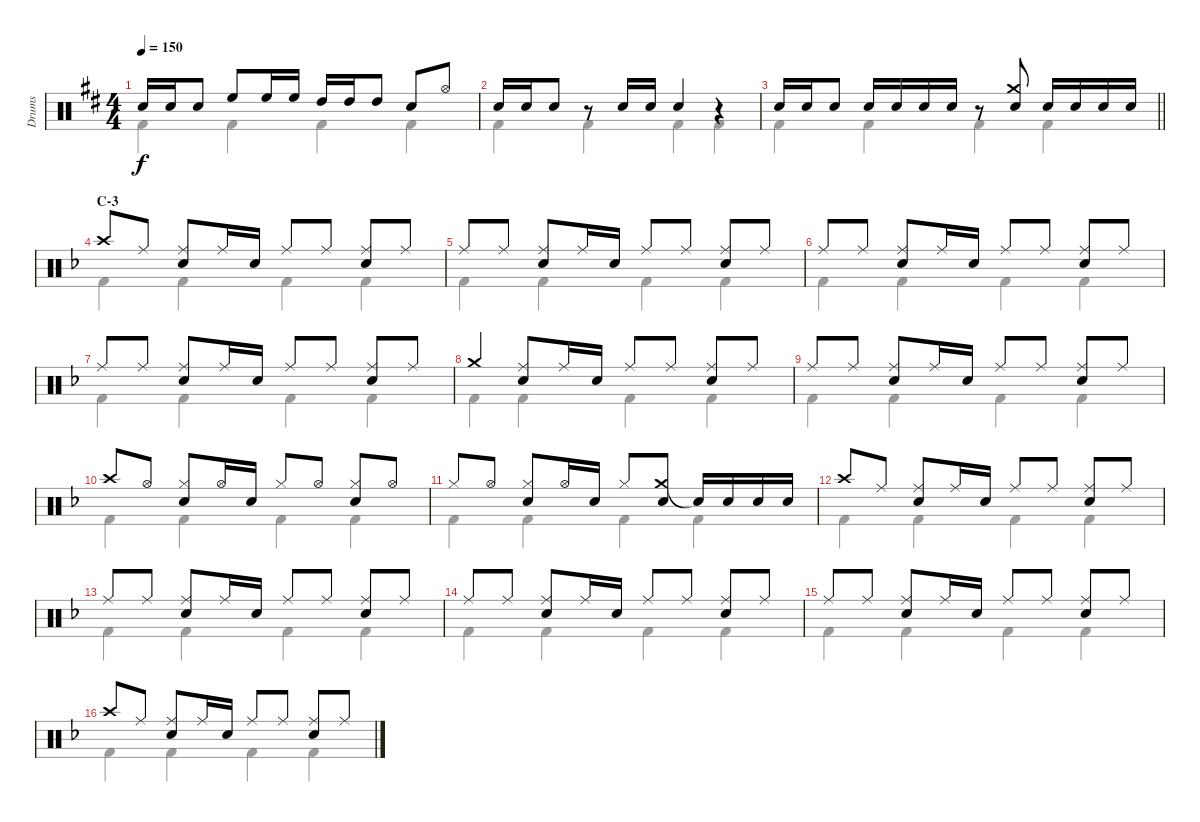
\track ("Drums" "Drums") {instrument percussion}
\staff {score}
\articulation defaults
\voice
\ts (4 4)
\tempo 150
\clef neutral
\ks d "Snare (hit) 2".16{dy f} "Snare (hit) 2".16 "Snare (hit) 2".8 "High Floor Tom (hit)".8 "High Floor Tom (hit)".16 "High Floor Tom (hit)".16 "High Tom (hit)".16 "High Tom (hit)".16 "High Tom (hit)".8 "Snare (hit) 2".8 "Hi-Hat (open)".8
|
"Snare (hit) 2".16 "Snare (hit) 2".16 "Snare (hit) 2".8 r.8 "Snare (hit) 2".16 "Snare (hit) 2".16 "Snare (hit) 2".4 r.4 |
\barLineRight lightlight "Snare (hit) 2".16 "Snare (hit) 2".16 "Snare (hit) 2".8 "Snare (hit) 2".16 "Snare (hit) 2".16 "Snare (hit) 2".16 "Snare (hit) 2".16
r.8 ("Crash medium (hit)" "Snare (hit) 2").8 "Snare (hit) 2".16 "Snare (hit) 2".16 "Snare (hit) 2".16 "Snare (hit) 2".16 |
\section ("" "C-3")
\ks f "Crash high (hit)".8 "Ride (middle)".8
("Ride (middle)" "Snare (hit) 2").8 "Ride (middle)".16 "Snare (hit) 2".16 "Ride (middle)".8 "Ride (middle)".8 ("Ride (middle)" "Snare (hit) 2").8 "Ride (middle)".8 |
"Ride (middle)".8 "Ride (middle)".8 ("Ride (middle)" "Snare (hit) 2").8 "Ride (middle)".16 "Snare (hit) 2".16 "Ride (middle)".8 "Ride (middle)".8 ("Ride (middle)" "Snare (hit) 2").8 "Ride (middle)".8 |
"Ride (middle)".8 "Ride (middle)".8 ("Ride (middle)" "Snare (hit) 2").8 "Ride (middle)".16 "Snare (hit) 2".16 "Ride (middle)".8 "Ride (middle)".8 ("Ride (middle)" "Snare (hit) 2").8 "Ride (middle)".8 |
"Ride (middle)".8 "Ride (middle)".8 ("Ride (middle)" "Snare (hit) 2").8 "Ride (middle)".16 "Snare (hit) 2".16 "Ride (middle)".8 "Ride (middle)".8 ("Ride (middle)" "Snare (hit) 2").8 "Ride (middle)".8 |
"Crash medium (hit)".4 ("Ride (middle)" "Snare (hit) 2").8 "Ride (middle)".16 "Snare (hit) 2".16 "Ride (middle)".8 "Ride (middle)".8 ("Ride (middle)" "Snare (hit) 2").8 "Ride (middle)".8 |
"Ride (middle)".8 "Ride (middle)".8 ("Ride (middle)" "Snare (hit) 2").8 "Ride (middle)".16 "Snare (hit) 2".16 "Ride (middle)".8 "Ride (middle)".8 ("Ride (middle)" "Snare (hit) 2").8 "Ride (middle)".8 |
"Crash high (hit)".8 "Hi-Hat (open)".8 ("Hi-Hat (closed)" "Snare (hit) 2").8 "Hi-Hat (open)".16 "Snare (hit) 2".16 "Hi-Hat (closed)".8 "Hi-Hat (open)".8 ("Hi-Hat (closed)" "Snare (hit) 2").8 "Hi-Hat (open)".8 |
"Hi-Hat (closed)".8 "Hi-Hat (open)".8 ("Hi-Hat (closed)" "Snare (hit) 2").8 "Hi-Hat (open)".16 "Snare (hit) 2".16 "Hi-Hat (closed)".8 ("Crash medium (hit)" "Snare (hit) 2").8 "Snare (hit)"{t}.16 "Snare (hit) 2".16 "Snare (hit) 2".16 "Snare (hit) 2".16 |
"Crash high (hit)".8 "Ride (middle)".8 ("Ride (middle)" "Snare (hit) 2").8 "Ride (middle)".16 "Snare (hit) 2".16 "Ride (middle)".8 "Ride (middle)".8 ("Ride (middle)" "Snare (hit) 2").8 "Ride (middle)".8 |
"Ride (middle)".8 "Ride (middle)".8 ("Ride (middle)" "Snare (hit) 2").8 "Ride (middle)".16 "Snare (hit) 2".16 "Ride (middle)".8 "Ride (middle)".8 ("Ride (middle)" "Snare (hit) 2").8 "Ride (middle)".8 |
"Ride (middle)".8 "Ride (middle)".8 ("Ride (middle)" "Snare (hit) 2").8 "Ride (middle)".16 "Snare (hit) 2".16 "Ride (middle)".8 "Ride (middle)".8 ("Ride (middle)" "Snare (hit) 2").8 "Ride (middle)".8 |
"Ride (middle)".8 "Ride (middle)".8 ("Ride (middle)" "Snare (hit) 2").8 "Ride (middle)".16 "Snare (hit) 2".16 "Ride (middle)".8 "Ride (middle)".8 ("Ride (middle)" "Snare (hit) 2").8 "Ride (middle)".8 |
"Crash high (hit)".8 "Ride (middle)".8 ("Ride (middle)" "Snare (hit) 2").8 "Ride (middle)".16 "Snare (hit) 2".16 "Ride (middle)".8 "Ride (middle)".8 ("Ride (middle)" "Snare (hit) 2").8 "Ride (middle)".8
\voice
\clef neutral
\ottava regular
\simile none
\ks d "Kick (hit) 2".4{dy f} "Kick (hit) 2".4 "Kick (hit) 2".4 "Kick (hit) 2".4
|
"Kick (hit) 2".4 "Kick (hit) 2".4 "Kick (hit) 2".4 "Kick (hit) 2".4 |
\barLineRight lightlight "Kick (hit) 2".4 "Kick (hit) 2".4 "Kick (hit) 2".4 "Kick (hit) 2".4
|
\ks f "Kick (hit) 2".4 "Kick (hit) 2".4 "Kick (hit) 2".4 "Kick (hit) 2".4
|
"Kick (hit) 2".4 "Kick (hit) 2".4 "Kick (hit) 2".4 "Kick (hit) 2".4 |
"Kick (hit) 2".4 "Kick (hit) 2".4 "Kick (hit) 2".4 "Kick (hit) 2".4 |
"Kick (hit) 2".4 "Kick (hit) 2".4 "Kick (hit) 2".4 "Kick (hit) 2".4 |
"Kick (hit) 2".4 "Kick (hit) 2".4 "Kick (hit) 2".4 "Kick (hit) 2".4 |
"Kick (hit) 2".4 "Kick (hit) 2".4 "Kick (hit) 2".4 "Kick (hit) 2".4 |
"Kick (hit) 2".4 "Kick (hit) 2".4 "Kick (hit) 2".4 "Kick (hit) 2".4 |
"Kick (hit) 2".4 "Kick (hit) 2".4 "Kick (hit) 2".4 "Kick (hit) 2".4 |
"Kick (hit) 2".4 "Kick (hit) 2".4 "Kick (hit) 2".4 "Kick (hit) 2".4 |
"Kick (hit) 2".4 "Kick (hit) 2".4 "Kick (hit) 2".4 "Kick (hit) 2".4 |
"Kick (hit) 2".4 "Kick (hit) 2".4 "Kick (hit) 2".4 "Kick (hit) 2".4 |
"Kick (hit) 2".4 "Kick (hit) 2".4 "Kick (hit) 2".4 "Kick (hit) 2".4 |
"Kick (hit) 2".4 "Kick (hit) 2".4 "Kick (hit) 2".4 "Kick (hit) 2".4
